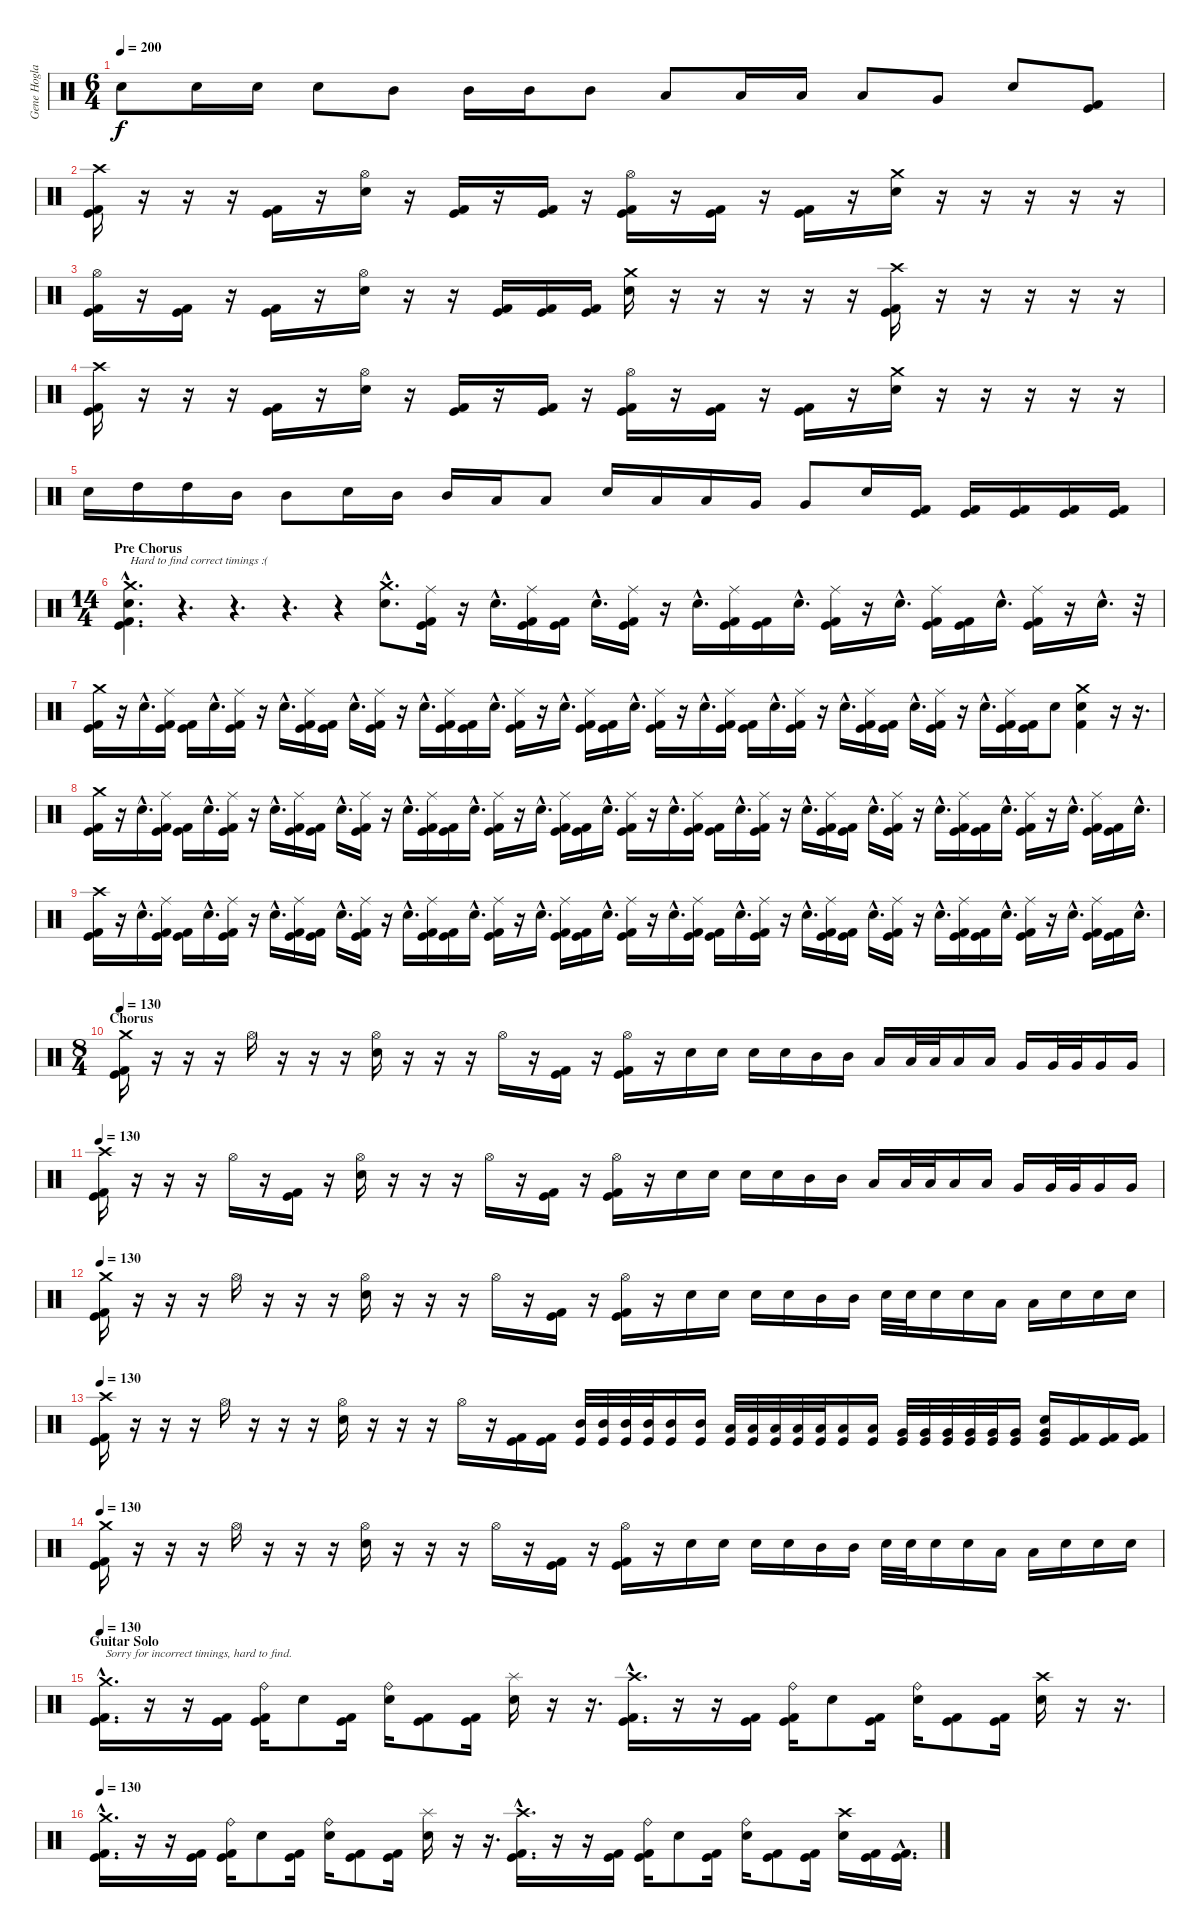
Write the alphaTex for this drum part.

\track ("Gene Hoglan" "Gene Hogla") {instrument percussion}
\staff {score}
\articulation defaults
\ts (6 4)
\tempo 200
\clef neutral
\ks c "Electric Snare (hit)".8{dy f} "Electric Snare (hit)".16 "Electric Snare (hit)".16 "Electric Snare (hit)".8 "Mid Tom (hit)".8 "Mid Tom (hit)".16 "Mid Tom (hit)".16 "Mid Tom (hit)".8 "Low Tom (hit)".8 "Low Tom (hit)".16 "Low Tom (hit)".16 "Low Tom (hit)".8 "Very Low Tom (hit)".8 "Electric Snare (hit)".8
("Kick (hit) 2" "Kick (hit)").8 |
("Crash high (hit)" "Kick (hit) 2" "Kick (hit)").16 r.16 r.16 r.16 ("Kick (hit) 2" "Kick (hit)").16 r.16 ("Hi-Hat (open)" "Electric Snare (hit)").16 r.16 ("Kick (hit) 2" "Kick (hit)").16 r.16 ("Kick (hit) 2" "Kick (hit)").16 r.16 ("Hi-Hat (open)" "Kick (hit) 2" "Kick (hit)").16 r.16 ("Kick (hit) 2" "Kick (hit)").16 r.16 ("Kick (hit) 2" "Kick (hit)").16 r.16 ("Crash medium (hit)" "Electric Snare (hit)").16 r.16 r.16 r.16 r.16 r.16 |
("Hi-Hat (open)" "Kick (hit) 2" "Kick (hit)").16 r.16 ("Kick (hit) 2" "Kick (hit)").16 r.16 ("Kick (hit)" "Kick (hit) 2").16 r.16 ("Hi-Hat (open)" "Electric Snare (hit)").16 r.16 r.16 ("Kick (hit) 2" "Kick (hit)").16 ("Kick (hit) 2" "Kick (hit)").16 ("Kick (hit) 2" "Kick (hit)").16 ("Crash medium (hit)" "Electric Snare (hit)").16 r.16 r.16 r.16 r.16 r.16 ("Crash high (hit)" "Kick (hit) 2" "Kick (hit)").16 r.16 r.16 r.16 r.16 r.16 |
("Crash high (hit)" "Kick (hit) 2" "Kick (hit)").16 r.16 r.16 r.16 ("Kick (hit) 2" "Kick (hit)").16 r.16 ("Hi-Hat (open)" "Electric Snare (hit)").16 r.16 ("Kick (hit) 2" "Kick (hit)").16 r.16 ("Kick (hit) 2" "Kick (hit)").16 r.16 ("Hi-Hat (open)" "Kick (hit) 2" "Kick (hit)").16 r.16 ("Kick (hit) 2" "Kick (hit)").16 r.16 ("Kick (hit) 2" "Kick (hit)").16 r.16 ("Crash medium (hit)" "Electric Snare (hit)").16 r.16 r.16 r.16 r.16 r.16 |
"Electric Snare (hit)".16 "High Tom (hit)".16 "High Tom (hit)".16 "Mid Tom (hit)".16 "Mid Tom (hit)".8 "Electric Snare (hit)".16 "Mid Tom (hit)".16 "Mid Tom (hit)".16 "Low Tom (hit)".16 "Low Tom (hit)".8 "Electric Snare (hit)".16 "Low Tom (hit)".16 "Low Tom (hit)".16 "Very Low Tom (hit)".16 "Very Low Tom (hit)".8 "Electric Snare (hit)".16 ("Kick (hit) 2" "Kick (hit)").16 ("Kick (hit) 2" "Kick (hit)").16 ("Kick (hit) 2" "Kick (hit)").16 ("Kick (hit) 2" "Kick (hit)").16 ("Kick (hit) 2" "Kick (hit)").16 |
\ts (14 4)
\section ("" "Pre Chorus")
("Crash medium (hit)"{hac} "Electric Snare (hit)"{hac} "Kick (hit) 2"{hac} "Kick (hit)"{hac}).4{d txt "Hard to find correct timings :("} r.4{d} r.4{d} r.4{d} r.4 ("Crash medium (hit)"{hac} "Electric Snare (hit)"{hac}).8{d} ("Ride (middle)" "Kick (hit) 2" "Kick (hit)").16 r.16 "Electric Snare (hit)"{hac}.16{d} ("Ride (middle)" "Kick (hit) 2" "Kick (hit)").16 ("Kick (hit) 2" "Kick (hit)").16 "Electric Snare (hit)"{hac}.16{d} ("Ride (middle)" "Kick (hit) 2" "Kick (hit)").16 r.16 "Electric Snare (hit)"{hac}.16{d} ("Ride (middle)" "Kick (hit) 2" "Kick (hit)").16 ("Kick (hit) 2" "Kick (hit)").16 "Electric Snare (hit)"{hac}.16{d} ("Ride (middle)" "Kick (hit) 2" "Kick (hit)").16 r.16 "Electric Snare (hit)"{hac}.16{d} ("Ride (middle)" "Kick (hit) 2" "Kick (hit)").16 ("Kick (hit) 2" "Kick (hit)").16 "Electric Snare (hit)"{hac}.16{d} ("Ride (middle)" "Kick (hit) 2" "Kick (hit)").16 r.16 "Electric Snare (hit)"{hac}.16{d} r.32 |
("Crash medium (hit)" "Kick (hit) 2" "Kick (hit)").16 r.16 "Electric Snare (hit)"{hac}.16{d} ("Ride (middle)" "Kick (hit) 2" "Kick (hit)").16 ("Kick (hit) 2" "Kick (hit)").16 "Electric Snare (hit)"{hac}.16{d} ("Ride (middle)" "Kick (hit) 2" "Kick (hit)").16 r.16 "Electric Snare (hit)"{hac}.16{d} ("Ride (middle)" "Kick (hit) 2" "Kick (hit)").16 ("Kick (hit) 2" "Kick (hit)").16 "Electric Snare (hit)"{hac}.16{d} ("Ride (middle)" "Kick (hit) 2" "Kick (hit)").16 r.16 "Electric Snare (hit)"{hac}.16{d} ("Ride (middle)" "Kick (hit) 2" "Kick (hit)").16 ("Kick (hit) 2" "Kick (hit)").16 "Electric Snare (hit)"{hac}.16{d} ("Ride (middle)" "Kick (hit) 2" "Kick (hit)").16 r.16 "Electric Snare (hit)"{hac}.16{d} ("Ride (middle)" "Kick (hit) 2" "Kick (hit)").16 ("Kick (hit) 2" "Kick (hit)").16 "Electric Snare (hit)"{hac}.16{d} ("Ride (middle)" "Kick (hit) 2" "Kick (hit)").16 r.16 "Electric Snare (hit)"{hac}.16{d} ("Ride (middle)" "Kick (hit) 2" "Kick (hit)").16 ("Kick (hit) 2" "Kick (hit)").16 "Electric Snare (hit)"{hac}.16{d} ("Ride (middle)" "Kick (hit) 2" "Kick (hit)").16 r.16 "Electric Snare (hit)"{hac}.16{d} ("Ride (middle)" "Kick (hit) 2" "Kick (hit)").16 ("Kick (hit) 2" "Kick (hit)").16 "Electric Snare (hit)"{hac}.16{d} ("Ride (middle)" "Kick (hit) 2" "Kick (hit)").16 r.16 "Electric Snare (hit)"{hac}.16{d} ("Ride (middle)" "Kick (hit) 2" "Kick (hit)").16 ("Kick (hit) 2" "Kick (hit)").16 "Electric Snare (hit)".8 ("Crash medium (hit)" "Electric Snare (hit)" "Kick (hit) 2").4 r.16 r.16{d} |
("Crash medium (hit)" "Kick (hit) 2" "Kick (hit)").16 r.16 "Electric Snare (hit)"{hac}.16{d} ("Ride (middle)" "Kick (hit) 2" "Kick (hit)").16 ("Kick (hit) 2" "Kick (hit)").16 "Electric Snare (hit)"{hac}.16{d} ("Ride (middle)" "Kick (hit) 2" "Kick (hit)").16 r.16 "Electric Snare (hit)"{hac}.16{d} ("Ride (middle)" "Kick (hit) 2" "Kick (hit)").16 ("Kick (hit) 2" "Kick (hit)").16 "Electric Snare (hit)"{hac}.16{d} ("Ride (middle)" "Kick (hit) 2" "Kick (hit)").16 r.16 "Electric Snare (hit)"{hac}.16{d} ("Ride (middle)" "Kick (hit) 2" "Kick (hit)").16 ("Kick (hit) 2" "Kick (hit)").16 "Electric Snare (hit)"{hac}.16{d} ("Ride (middle)" "Kick (hit) 2" "Kick (hit)").16 r.16 "Electric Snare (hit)"{hac}.16{d} ("Ride (middle)" "Kick (hit) 2" "Kick (hit)").16 ("Kick (hit) 2" "Kick (hit)").16 "Electric Snare (hit)"{hac}.16{d} ("Ride (middle)" "Kick (hit) 2" "Kick (hit)").16 r.16 "Electric Snare (hit)"{hac}.16{d} ("Ride (middle)" "Kick (hit) 2" "Kick (hit)").16 ("Kick (hit) 2" "Kick (hit)").16 "Electric Snare (hit)"{hac}.16{d} ("Ride (middle)" "Kick (hit) 2" "Kick (hit)").16 r.16 "Electric Snare (hit)"{hac}.16{d} ("Ride (middle)" "Kick (hit) 2" "Kick (hit)").16 ("Kick (hit) 2" "Kick (hit)").16 "Electric Snare (hit)"{hac}.16{d} ("Ride (middle)" "Kick (hit) 2" "Kick (hit)").16 r.16 "Electric Snare (hit)"{hac}.16{d} ("Ride (middle)" "Kick (hit) 2" "Kick (hit)").16 ("Kick (hit) 2" "Kick (hit)").16 "Electric Snare (hit)"{hac}.16{d} ("Ride (middle)" "Kick (hit) 2" "Kick (hit)").16 r.16 "Electric Snare (hit)"{hac}.16{d} ("Ride (middle)" "Kick (hit) 2" "Kick (hit)").16 ("Kick (hit) 2" "Kick (hit)").16 "Electric Snare (hit)"{hac}.16{d} |
("Crash high (hit)" "Kick (hit) 2" "Kick (hit)").16 r.16 "Electric Snare (hit)"{hac}.16{d} ("Ride (middle)" "Kick (hit) 2" "Kick (hit)").16 ("Kick (hit) 2" "Kick (hit)").16 "Electric Snare (hit)"{hac}.16{d} ("Ride (middle)" "Kick (hit) 2" "Kick (hit)").16 r.16 "Electric Snare (hit)"{hac}.16{d} ("Ride (middle)" "Kick (hit) 2" "Kick (hit)").16 ("Kick (hit) 2" "Kick (hit)").16 "Electric Snare (hit)"{hac}.16{d} ("Ride (middle)" "Kick (hit) 2" "Kick (hit)").16 r.16 "Electric Snare (hit)"{hac}.16{d} ("Ride (middle)" "Kick (hit) 2" "Kick (hit)").16 ("Kick (hit) 2" "Kick (hit)").16 "Electric Snare (hit)"{hac}.16{d} ("Ride (middle)" "Kick (hit) 2" "Kick (hit)").16 r.16 "Electric Snare (hit)"{hac}.16{d} ("Ride (middle)" "Kick (hit) 2" "Kick (hit)").16 ("Kick (hit) 2" "Kick (hit)").16 "Electric Snare (hit)"{hac}.16{d} ("Ride (middle)" "Kick (hit) 2" "Kick (hit)").16 r.16 "Electric Snare (hit)"{hac}.16{d} ("Ride (middle)" "Kick (hit) 2" "Kick (hit)").16 ("Kick (hit) 2" "Kick (hit)").16 "Electric Snare (hit)"{hac}.16{d} ("Ride (middle)" "Kick (hit) 2" "Kick (hit)").16 r.16 "Electric Snare (hit)"{hac}.16{d} ("Ride (middle)" "Kick (hit) 2" "Kick (hit)").16 ("Kick (hit) 2" "Kick (hit)").16 "Electric Snare (hit)"{hac}.16{d} ("Ride (middle)" "Kick (hit) 2" "Kick (hit)").16 r.16 "Electric Snare (hit)"{hac}.16{d} ("Ride (middle)" "Kick (hit) 2" "Kick (hit)").16 ("Kick (hit) 2" "Kick (hit)").16 "Electric Snare (hit)"{hac}.16{d} ("Ride (middle)" "Kick (hit) 2" "Kick (hit)").16 r.16 "Electric Snare (hit)"{hac}.16{d} ("Ride (middle)" "Kick (hit) 2" "Kick (hit)").16 ("Kick (hit) 2" "Kick (hit)").16 "Electric Snare (hit)"{hac}.16{d} |
\ts (8 4)
\section ("" "Chorus")
\tempo 130
("Crash medium (hit)" "Kick (hit) 2" "Kick (hit)").16 r.16 r.16 r.16 "Hi-Hat (open)".16 r.16 r.16 r.16 ("Hi-Hat (open)" "Electric Snare (hit)").16 r.16 r.16 r.16 "Hi-Hat (open)".16 r.16 ("Kick (hit) 2" "Kick (hit)").16 r.16 ("Hi-Hat (open)" "Kick (hit) 2" "Kick (hit)").16 r.16 "Electric Snare (hit)".16 "Electric Snare (hit)".16 "Electric Snare (hit)".16 "Electric Snare (hit)".16 "Mid Tom (hit)".16 "Mid Tom (hit)".16 "Low Tom (hit)".16 "Low Tom (hit)".32 "Low Tom (hit)".32 "Low Tom (hit)".16 "Low Tom (hit)".16 "Very Low Tom (hit)".16 "Very Low Tom (hit)".32 "Very Low Tom (hit)".32 "Very Low Tom (hit)".16 "Very Low Tom (hit)".16 |
\tempo 130
("Crash high (hit)" "Kick (hit) 2" "Kick (hit)").16 r.16 r.16 r.16 "Hi-Hat (open)".16 r.16 ("Kick (hit) 2" "Kick (hit)").16 r.16 ("Hi-Hat (open)" "Electric Snare (hit)").16 r.16 r.16 r.16 "Hi-Hat (open)".16 r.16 ("Kick (hit) 2" "Kick (hit)").16 r.16 ("Hi-Hat (open)" "Kick (hit) 2" "Kick (hit)").16 r.16 "Electric Snare (hit)".16 "Electric Snare (hit)".16 "Electric Snare (hit)".16 "Electric Snare (hit)".16 "Mid Tom (hit)".16 "Mid Tom (hit)".16 "Low Tom (hit)".16 "Low Tom (hit)".32 "Low Tom (hit)".32 "Low Tom (hit)".16 "Low Tom (hit)".16 "Very Low Tom (hit)".16 "Very Low Tom (hit)".32 "Very Low Tom (hit)".32 "Very Low Tom (hit)".16 "Very Low Tom (hit)".16 |
\tempo 130
("Crash medium (hit)" "Kick (hit) 2" "Kick (hit)").16 r.16 r.16 r.16 "Hi-Hat (open)".16 r.16 r.16 r.16 ("Hi-Hat (open)" "Electric Snare (hit)").16 r.16 r.16 r.16 "Hi-Hat (open)".16 r.16 ("Kick (hit) 2" "Kick (hit)").16 r.16 ("Hi-Hat (open)" "Kick (hit) 2" "Kick (hit)").16 r.16 "Electric Snare (hit)".16 "Electric Snare (hit)".16 "Electric Snare (hit)".16 "Electric Snare (hit)".16 "Mid Tom (hit)".16 "Mid Tom (hit)".16 "Electric Snare (hit)".32 "Electric Snare (hit)".32 "Electric Snare (hit)".16 "Electric Snare (hit)".16 "Low Tom (hit)".16 "Low Tom (hit)".16 "Electric Snare (hit)".16 "Electric Snare (hit)".16 "Electric Snare (hit)".16 |
\tempo 130
("Crash high (hit)" "Kick (hit) 2" "Kick (hit)").16 r.16 r.16 r.16 "Hi-Hat (open)".16 r.16 r.16 r.16 ("Hi-Hat (open)" "Electric Snare (hit)").16 r.16 r.16 r.16 "Hi-Hat (open)".16 r.16 ("Kick (hit) 2" "Kick (hit)").16 ("Kick (hit) 2" "Kick (hit)").16 ("Mid Tom (hit)" "Kick (hit)").32 ("Mid Tom (hit)" "Kick (hit)").32 ("Mid Tom (hit)" "Kick (hit)").32 ("Mid Tom (hit)" "Kick (hit)").32 ("Mid Tom (hit)" "Kick (hit)").16 ("Mid Tom (hit)" "Kick (hit)").16 ("Low Tom (hit)" "Kick (hit)").32 ("Low Tom (hit)" "Kick (hit)").32 ("Low Tom (hit)" "Kick (hit)").32 ("Low Tom (hit)" "Kick (hit)").32 ("Low Tom (hit)" "Kick (hit)").32 ("Low Tom (hit)" "Kick (hit)").16 ("Low Tom (hit)" "Kick (hit)").16 ("Very Low Tom (hit)" "Kick (hit)").32 ("Very Low Tom (hit)" "Kick (hit)").32 ("Very Low Tom (hit)" "Kick (hit)").32 ("Very Low Tom (hit)" "Kick (hit)").32 ("Very Low Tom (hit)" "Kick (hit)").32 ("Very Low Tom (hit)" "Kick (hit)").16 ("Very Low Tom (hit)" "Electric Snare (hit)" "Kick (hit)").16 ("Kick (hit)" "Kick (hit) 2").16 ("Kick (hit)" "Kick (hit) 2").16 ("Kick (hit)" "Kick (hit) 2").16 |
\tempo 130
("Crash medium (hit)" "Kick (hit) 2" "Kick (hit)").16 r.16 r.16 r.16 "Hi-Hat (open)".16 r.16 r.16 r.16 ("Hi-Hat (open)" "Electric Snare (hit)").16 r.16 r.16 r.16 "Hi-Hat (open)".16 r.16 ("Kick (hit) 2" "Kick (hit)").16 r.16 ("Hi-Hat (open)" "Kick (hit) 2" "Kick (hit)").16 r.16 "Electric Snare (hit)".16 "Electric Snare (hit)".16 "Electric Snare (hit)".16 "Electric Snare (hit)".16 "Mid Tom (hit)".16 "Mid Tom (hit)".16 "Electric Snare (hit)".32 "Electric Snare (hit)".32 "Electric Snare (hit)".16 "Electric Snare (hit)".16 "Low Tom (hit)".16 "Low Tom (hit)".16 "Electric Snare (hit)".16 "Electric Snare (hit)".16 "Electric Snare (hit)".16 |
\section ("" "Guitar Solo")
\tempo 130
("Crash medium (hit)"{hac} "Kick (hit) 2"{hac} "Kick (hit)"{hac}).16{d txt "Sorry for incorrect timings, hard to find."} r.16 r.16 ("Kick (hit) 2" "Kick (hit)").16 ("Ride (bell)" "Kick (hit) 2" "Kick (hit)").16 "Electric Snare (hit)".8 ("Kick (hit) 2" "Kick (hit)").16 ("Ride (bell)" "Electric Snare (hit)").16 ("Kick (hit) 2" "Kick (hit)").8 ("Kick (hit) 2" "Kick (hit)").16 ("Splash (hit)" "Electric Snare (hit)").16 r.16 r.16{d} ("Crash high (hit)"{hac} "Kick (hit) 2"{hac} "Kick (hit)"{hac}).16{d} r.16 r.16 ("Kick (hit) 2" "Kick (hit)").16 ("Ride (bell)" "Kick (hit) 2" "Kick (hit)").16 "Electric Snare (hit)".8 ("Kick (hit) 2" "Kick (hit)").16 ("Ride (bell)" "Electric Snare (hit)").16 ("Kick (hit) 2" "Kick (hit)").8 ("Kick (hit) 2" "Kick (hit)").16 ("Crash high (hit)" "Electric Snare (hit)").16 r.16 r.16{d} |
\tempo 130
("Crash medium (hit)"{hac} "Kick (hit) 2"{hac} "Kick (hit)"{hac}).16{d} r.16 r.16 ("Kick (hit) 2" "Kick (hit)").16 ("Ride (bell)" "Kick (hit) 2" "Kick (hit)").16 "Electric Snare (hit)".8 ("Kick (hit) 2" "Kick (hit)").16 ("Ride (bell)" "Electric Snare (hit)").16 ("Kick (hit) 2" "Kick (hit)").8 ("Kick (hit) 2" "Kick (hit)").16 ("Splash (hit)" "Electric Snare (hit)").16 r.16 r.16{d} ("Crash high (hit)"{hac} "Kick (hit) 2"{hac} "Kick (hit)"{hac}).16{d} r.16 r.16 ("Kick (hit) 2" "Kick (hit)").16 ("Ride (bell)" "Kick (hit) 2" "Kick (hit)").16 "Electric Snare (hit)".8 ("Kick (hit) 2" "Kick (hit)").16 ("Ride (bell)" "Electric Snare (hit)").16 ("Kick (hit) 2" "Kick (hit)").8 ("Kick (hit) 2" "Kick (hit)").16 ("Crash high (hit)" "Electric Snare (hit)").16 ("Kick (hit) 2" "Kick (hit)").16 ("Kick (hit) 2"{hac} "Kick (hit)"{hac}).16{d}
